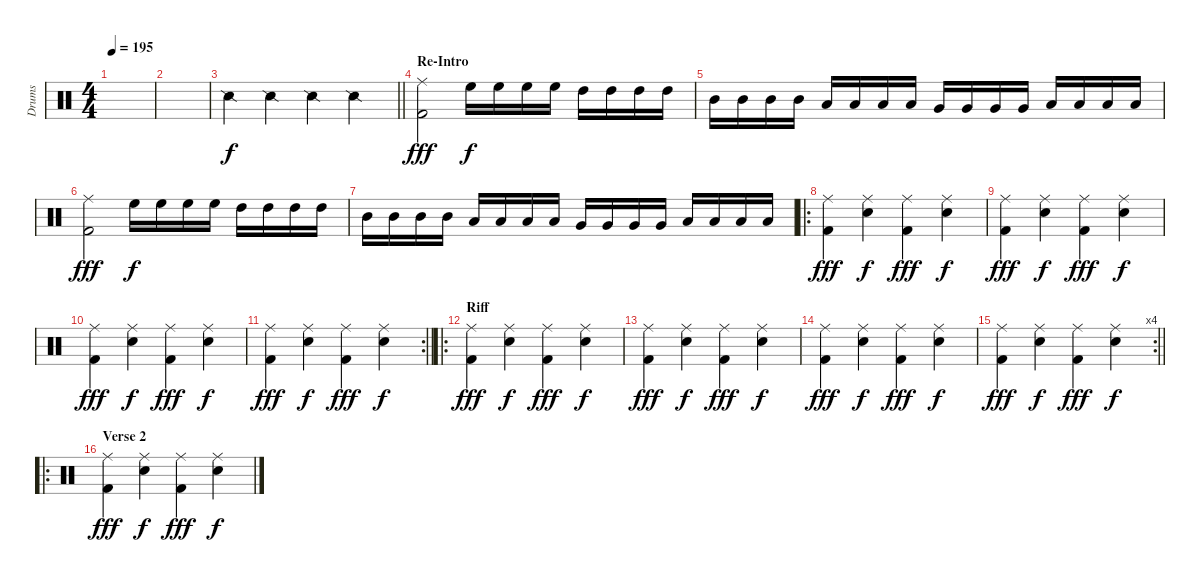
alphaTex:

\track ("Drums" "Drums") {instrument percussion}
\staff {score}
\articulation defaults
\ts (4 4)
\tempo 195
\clef neutral
\ks c
|
|
\barLineRight lightlight "Snare (side stick) 2".4{dy f} "Snare (side stick) 2".4 "Snare (side stick) 2".4 "Snare (side stick) 2".4
|
\section ("" "Re-Intro")
("Ride (middle)" "Kick (hit) 2").2{dy fff} "High Floor Tom (hit)".16{dy f} "High Floor Tom (hit)".16 "High Floor Tom (hit)".16 "High Floor Tom (hit)".16 "High Tom (hit)".16 "High Tom (hit)".16 "High Tom (hit)".16 "High Tom (hit)".16 |
"Mid Tom (hit)".16 "Mid Tom (hit)".16 "Mid Tom (hit)".16 "Mid Tom (hit)".16 "Low Tom (hit)".16 "Low Tom (hit)".16 "Low Tom (hit)".16 "Low Tom (hit)".16 "Very Low Tom (hit)".16 "Very Low Tom (hit)".16 "Very Low Tom (hit)".16 "Very Low Tom (hit)".16 "Low Floor Tom (hit)".16 "Low Floor Tom (hit)".16 "Low Floor Tom (hit)".16 "Low Floor Tom (hit)".16 |
("Ride (middle)" "Kick (hit) 2").2{dy fff} "High Floor Tom (hit)".16{dy f} "High Floor Tom (hit)".16 "High Floor Tom (hit)".16 "High Floor Tom (hit)".16 "High Tom (hit)".16 "High Tom (hit)".16 "High Tom (hit)".16 "High Tom (hit)".16 |
"Mid Tom (hit)".16 "Mid Tom (hit)".16 "Mid Tom (hit)".16 "Mid Tom (hit)".16 "Low Tom (hit)".16 "Low Tom (hit)".16 "Low Tom (hit)".16 "Low Tom (hit)".16 "Very Low Tom (hit)".16 "Very Low Tom (hit)".16 "Very Low Tom (hit)".16 "Very Low Tom (hit)".16 "Low Floor Tom (hit)".16 "Low Floor Tom (hit)".16 "Low Floor Tom (hit)".16 "Low Floor Tom (hit)".16 |
\ro
("Ride (middle)" "Kick (hit) 2").4{dy fff} ("Ride (middle)" "Snare (hit) 2").4{dy f} ("Ride (middle)" "Kick (hit) 2").4{dy fff} ("Ride (middle)" "Snare (hit) 2").4{dy f} |
("Ride (middle)" "Kick (hit) 2").4{dy fff} ("Ride (middle)" "Snare (hit) 2").4{dy f} ("Ride (middle)" "Kick (hit) 2").4{dy fff} ("Ride (middle)" "Snare (hit) 2").4{dy f} |
("Ride (middle)" "Kick (hit) 2").4{dy fff} ("Ride (middle)" "Snare (hit) 2").4{dy f} ("Ride (middle)" "Kick (hit) 2").4{dy fff} ("Ride (middle)" "Snare (hit) 2").4{dy f} |
\rc 2
\barLineRight lightlight
("Ride (middle)" "Kick (hit) 2").4{dy fff} ("Ride (middle)" "Snare (hit) 2").4{dy f} ("Ride (middle)" "Kick (hit) 2").4{dy fff} ("Ride (middle)" "Snare (hit) 2").4{dy f} |
\ro
\section ("" "Riff")
("Ride (middle)" "Kick (hit) 2").4{dy fff} ("Ride (middle)" "Snare (hit) 2").4{dy f} ("Ride (middle)" "Kick (hit) 2").4{dy fff} ("Ride (middle)" "Snare (hit) 2").4{dy f} |
("Ride (middle)" "Kick (hit) 2").4{dy fff} ("Ride (middle)" "Snare (hit) 2").4{dy f} ("Ride (middle)" "Kick (hit) 2").4{dy fff} ("Ride (middle)" "Snare (hit) 2").4{dy f} |
("Ride (middle)" "Kick (hit) 2").4{dy fff} ("Ride (middle)" "Snare (hit) 2").4{dy f} ("Ride (middle)" "Kick (hit) 2").4{dy fff} ("Ride (middle)" "Snare (hit) 2").4{dy f} |
\rc 4
\barLineRight lightlight
("Ride (middle)" "Kick (hit) 2").4{dy fff} ("Ride (middle)" "Snare (hit) 2").4{dy f} ("Ride (middle)" "Kick (hit) 2").4{dy fff} ("Ride (middle)" "Snare (hit) 2").4{dy f} |
\ro
\section ("" "Verse 2")
("Ride (middle)" "Kick (hit) 2").4{dy fff} ("Ride (middle)" "Snare (hit) 2").4{dy f} ("Ride (middle)" "Kick (hit) 2").4{dy fff} ("Ride (middle)" "Snare (hit) 2").4{dy f}
